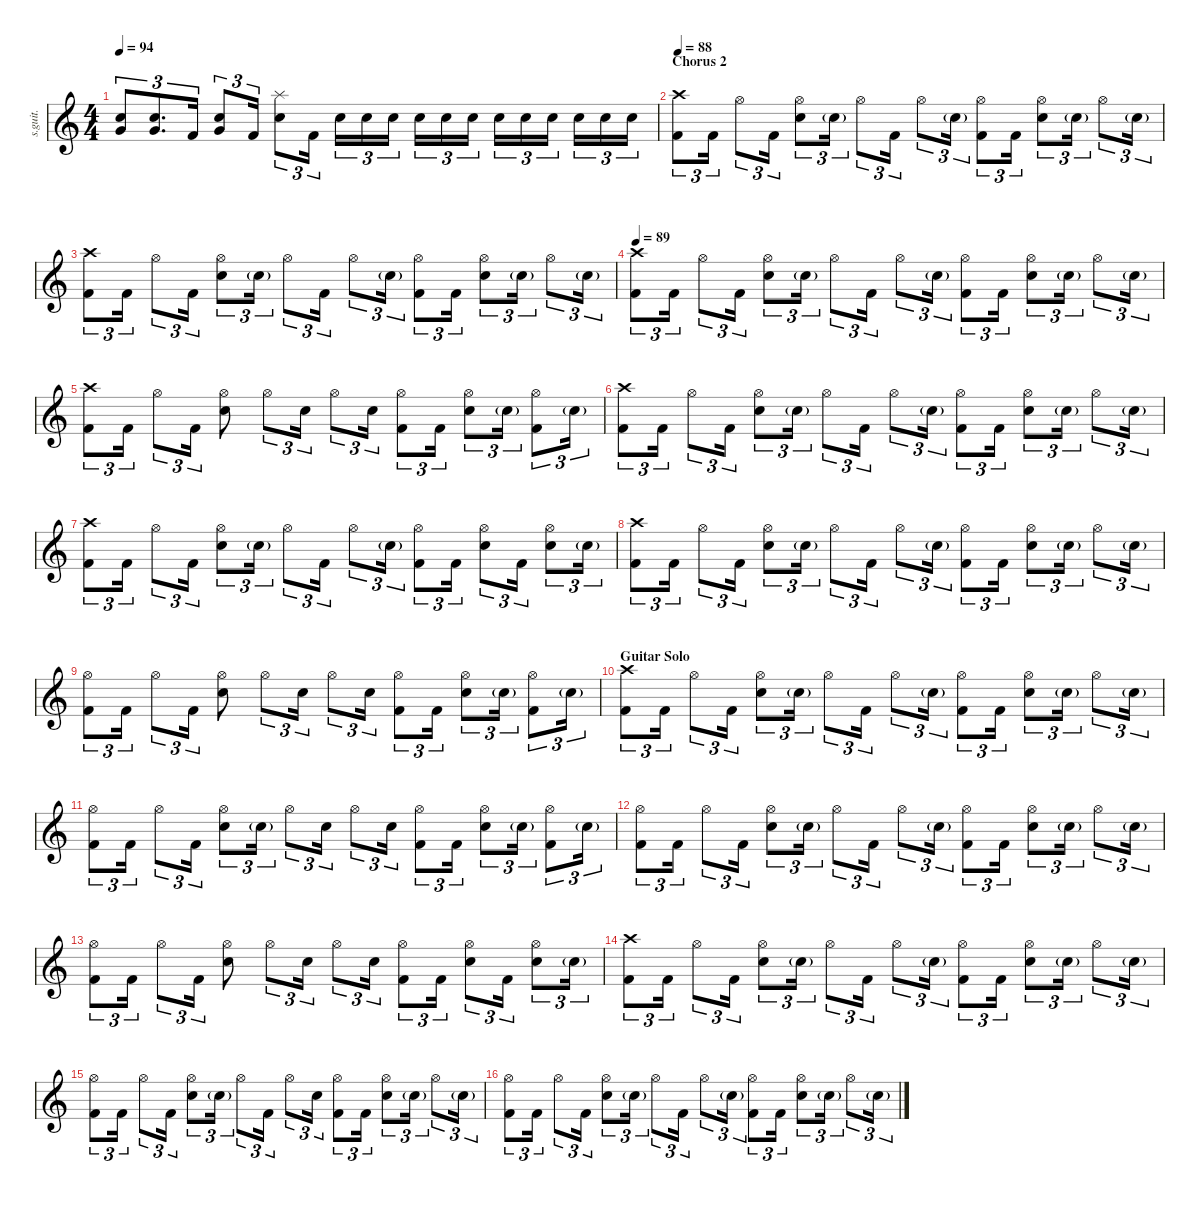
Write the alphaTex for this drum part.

\defaultSystemsLayout 4
\hideDynamics
\bracketExtendMode nobrackets
\track ("Brad Wilk - Drums" "s.guit.") {instrument percussion}
\staff {score}
\articulation defaults
\ts (4 4)
\tempo 94
\clef g2
\ks c
("Very Low Tom (hit)" "Snare (hit) 2").8{tu (3 2) lyrics (0 "") lyrics (1 "") lyrics (2 "") lyrics (3 "") lyrics (4 "") dy f} ("Very Low Tom (hit)" "Snare (hit) 2").8{d tu (3 2) lyrics (0 "") lyrics (1 "") lyrics (2 "") lyrics (3 "") lyrics (4 "")} "Kick (hit) 2".16{tu (3 2) lyrics (0 "") lyrics (1 "") lyrics (2 "") lyrics (3 "") lyrics (4 "")} ("Very Low Tom (hit)" "Snare (hit) 2").8{tu (3 2) lyrics (0 "") lyrics (1 "") lyrics (2 "") lyrics (3 "") lyrics (4 "")} "Kick (hit) 2".16{tu (3 2) lyrics (0 "") lyrics (1 "") lyrics (2 "") lyrics (3 "") lyrics (4 "")} ("Splash (hit)" "Snare (hit) 2").8{tu (3 2) lyrics (0 "") lyrics (1 "") lyrics (2 "") lyrics (3 "") lyrics (4 "")} "Kick (hit) 2".16{tu (3 2) lyrics (0 "") lyrics (1 "") lyrics (2 "") lyrics (3 "") lyrics (4 "")} "Snare (hit) 2".16{tu (3 2) lyrics (0 "") lyrics (1 "") lyrics (2 "") lyrics (3 "") lyrics (4 "")} "Snare (hit) 2".16{tu (3 2) lyrics (0 "") lyrics (1 "") lyrics (2 "") lyrics (3 "") lyrics (4 "")} "Snare (hit) 2".16{tu (3 2) lyrics (0 "") lyrics (1 "") lyrics (2 "") lyrics (3 "") lyrics (4 "")} "Snare (hit) 2".16{tu (3 2) lyrics (0 "") lyrics (1 "") lyrics (2 "") lyrics (3 "") lyrics (4 "")} "Snare (hit) 2".16{tu (3 2) lyrics (0 "") lyrics (1 "") lyrics (2 "") lyrics (3 "") lyrics (4 "")} "Snare (hit) 2".16{tu (3 2) lyrics (0 "") lyrics (1 "") lyrics (2 "") lyrics (3 "") lyrics (4 "")} "Snare (hit) 2".16{tu (3 2) lyrics (0 "") lyrics (1 "") lyrics (2 "") lyrics (3 "") lyrics (4 "")} "Snare (hit) 2".16{tu (3 2) lyrics (0 "") lyrics (1 "") lyrics (2 "") lyrics (3 "") lyrics (4 "")} "Snare (hit) 2".16{tu (3 2) lyrics (0 "") lyrics (1 "") lyrics (2 "") lyrics (3 "") lyrics (4 "")} "Snare (hit) 2".16{tu (3 2) lyrics (0 "") lyrics (1 "") lyrics (2 "") lyrics (3 "") lyrics (4 "")} "Snare (hit) 2".16{tu (3 2) lyrics (0 "") lyrics (1 "") lyrics (2 "") lyrics (3 "") lyrics (4 "")} "Snare (hit) 2".16{tu (3 2) lyrics (0 "") lyrics (1 "") lyrics (2 "") lyrics (3 "") lyrics (4 "")} |
\section ("" "Chorus 2")
\tempo 88
("Crash high (hit)" "Kick (hit) 2").8{tu (3 2) lyrics (0 "") lyrics (1 "") lyrics (2 "") lyrics (3 "") lyrics (4 "")} "Kick (hit) 2".16{tu (3 2) lyrics (0 "") lyrics (1 "") lyrics (2 "") lyrics (3 "") lyrics (4 "")} "Hi-Hat (open)".8{tu (3 2) lyrics (0 "") lyrics (1 "") lyrics (2 "") lyrics (3 "") lyrics (4 "")} "Kick (hit) 2".16{tu (3 2) lyrics (0 "") lyrics (1 "") lyrics (2 "") lyrics (3 "") lyrics (4 "")} ("Hi-Hat (open)" "Snare (hit) 2").8{tu (3 2) lyrics (0 "") lyrics (1 "") lyrics (2 "") lyrics (3 "") lyrics (4 "")} "Snare (hit) 2"{g}.16{tu (3 2) lyrics (0 "") lyrics (1 "") lyrics (2 "") lyrics (3 "") lyrics (4 "") dy mp} "Hi-Hat (open)".8{tu (3 2) lyrics (0 "") lyrics (1 "") lyrics (2 "") lyrics (3 "") lyrics (4 "") dy f} "Kick (hit) 2".16{tu (3 2) lyrics (0 "") lyrics (1 "") lyrics (2 "") lyrics (3 "") lyrics (4 "")} "Hi-Hat (open)".8{tu (3 2) lyrics (0 "") lyrics (1 "") lyrics (2 "") lyrics (3 "") lyrics (4 "")} "Snare (hit) 2"{g}.16{tu (3 2) lyrics (0 "") lyrics (1 "") lyrics (2 "") lyrics (3 "") lyrics (4 "") dy mp} ("Hi-Hat (open)" "Kick (hit) 2").8{tu (3 2) lyrics (0 "") lyrics (1 "") lyrics (2 "") lyrics (3 "") lyrics (4 "") dy f} "Kick (hit) 2".16{tu (3 2) lyrics (0 "") lyrics (1 "") lyrics (2 "") lyrics (3 "") lyrics (4 "")} ("Hi-Hat (open)" "Snare (hit) 2").8{tu (3 2) lyrics (0 "") lyrics (1 "") lyrics (2 "") lyrics (3 "") lyrics (4 "")} "Snare (hit) 2"{g}.16{tu (3 2) lyrics (0 "") lyrics (1 "") lyrics (2 "") lyrics (3 "") lyrics (4 "") dy mp} "Hi-Hat (open)".8{tu (3 2) lyrics (0 "") lyrics (1 "") lyrics (2 "") lyrics (3 "") lyrics (4 "") dy f} "Snare (hit) 2"{g}.16{tu (3 2) lyrics (0 "") lyrics (1 "") lyrics (2 "") lyrics (3 "") lyrics (4 "") dy mp} |
("Crash high (hit)" "Kick (hit) 2").8{tu (3 2) lyrics (0 "") lyrics (1 "") lyrics (2 "") lyrics (3 "") lyrics (4 "") dy f} "Kick (hit) 2".16{tu (3 2) lyrics (0 "") lyrics (1 "") lyrics (2 "") lyrics (3 "") lyrics (4 "")} "Hi-Hat (open)".8{tu (3 2) lyrics (0 "") lyrics (1 "") lyrics (2 "") lyrics (3 "") lyrics (4 "")} "Kick (hit) 2".16{tu (3 2) lyrics (0 "") lyrics (1 "") lyrics (2 "") lyrics (3 "") lyrics (4 "")} ("Hi-Hat (open)" "Snare (hit) 2").8{tu (3 2) lyrics (0 "") lyrics (1 "") lyrics (2 "") lyrics (3 "") lyrics (4 "")} "Snare (hit) 2"{g}.16{tu (3 2) lyrics (0 "") lyrics (1 "") lyrics (2 "") lyrics (3 "") lyrics (4 "") dy mp} "Hi-Hat (open)".8{tu (3 2) lyrics (0 "") lyrics (1 "") lyrics (2 "") lyrics (3 "") lyrics (4 "") dy f} "Kick (hit) 2".16{tu (3 2) lyrics (0 "") lyrics (1 "") lyrics (2 "") lyrics (3 "") lyrics (4 "")} "Hi-Hat (open)".8{tu (3 2) lyrics (0 "") lyrics (1 "") lyrics (2 "") lyrics (3 "") lyrics (4 "")} "Snare (hit) 2"{g}.16{tu (3 2) lyrics (0 "") lyrics (1 "") lyrics (2 "") lyrics (3 "") lyrics (4 "") dy mp} ("Hi-Hat (open)" "Kick (hit) 2").8{tu (3 2) lyrics (0 "") lyrics (1 "") lyrics (2 "") lyrics (3 "") lyrics (4 "") dy f} "Kick (hit) 2".16{tu (3 2) lyrics (0 "") lyrics (1 "") lyrics (2 "") lyrics (3 "") lyrics (4 "")} ("Hi-Hat (open)" "Snare (hit) 2").8{tu (3 2) lyrics (0 "") lyrics (1 "") lyrics (2 "") lyrics (3 "") lyrics (4 "")} "Snare (hit) 2"{g}.16{tu (3 2) lyrics (0 "") lyrics (1 "") lyrics (2 "") lyrics (3 "") lyrics (4 "") dy mp} "Hi-Hat (open)".8{tu (3 2) lyrics (0 "") lyrics (1 "") lyrics (2 "") lyrics (3 "") lyrics (4 "") dy f} "Snare (hit) 2"{g}.16{tu (3 2) lyrics (0 "") lyrics (1 "") lyrics (2 "") lyrics (3 "") lyrics (4 "") dy mp} |
\tempo 89
("Crash high (hit)" "Kick (hit) 2").8{tu (3 2) lyrics (0 "") lyrics (1 "") lyrics (2 "") lyrics (3 "") lyrics (4 "") dy f} "Kick (hit) 2".16{tu (3 2) lyrics (0 "") lyrics (1 "") lyrics (2 "") lyrics (3 "") lyrics (4 "")} "Hi-Hat (open)".8{tu (3 2) lyrics (0 "") lyrics (1 "") lyrics (2 "") lyrics (3 "") lyrics (4 "")} "Kick (hit) 2".16{tu (3 2) lyrics (0 "") lyrics (1 "") lyrics (2 "") lyrics (3 "") lyrics (4 "")} ("Hi-Hat (open)" "Snare (hit) 2").8{tu (3 2) lyrics (0 "") lyrics (1 "") lyrics (2 "") lyrics (3 "") lyrics (4 "")} "Snare (hit) 2"{g}.16{tu (3 2) lyrics (0 "") lyrics (1 "") lyrics (2 "") lyrics (3 "") lyrics (4 "") dy mp} "Hi-Hat (open)".8{tu (3 2) lyrics (0 "") lyrics (1 "") lyrics (2 "") lyrics (3 "") lyrics (4 "") dy f} "Kick (hit) 2".16{tu (3 2) lyrics (0 "") lyrics (1 "") lyrics (2 "") lyrics (3 "") lyrics (4 "")} "Hi-Hat (open)".8{tu (3 2) lyrics (0 "") lyrics (1 "") lyrics (2 "") lyrics (3 "") lyrics (4 "")} "Snare (hit) 2"{g}.16{tu (3 2) lyrics (0 "") lyrics (1 "") lyrics (2 "") lyrics (3 "") lyrics (4 "") dy mp} ("Hi-Hat (open)" "Kick (hit) 2").8{tu (3 2) lyrics (0 "") lyrics (1 "") lyrics (2 "") lyrics (3 "") lyrics (4 "") dy f} "Kick (hit) 2".16{tu (3 2) lyrics (0 "") lyrics (1 "") lyrics (2 "") lyrics (3 "") lyrics (4 "")} ("Hi-Hat (open)" "Snare (hit) 2").8{tu (3 2) lyrics (0 "") lyrics (1 "") lyrics (2 "") lyrics (3 "") lyrics (4 "")} "Snare (hit) 2"{g}.16{tu (3 2) lyrics (0 "") lyrics (1 "") lyrics (2 "") lyrics (3 "") lyrics (4 "") dy mp} "Hi-Hat (open)".8{tu (3 2) lyrics (0 "") lyrics (1 "") lyrics (2 "") lyrics (3 "") lyrics (4 "") dy f} "Snare (hit) 2"{g}.16{tu (3 2) lyrics (0 "") lyrics (1 "") lyrics (2 "") lyrics (3 "") lyrics (4 "") dy mp} |
("Crash high (hit)" "Kick (hit) 2").8{tu (3 2) lyrics (0 "") lyrics (1 "") lyrics (2 "") lyrics (3 "") lyrics (4 "") dy f} "Kick (hit) 2".16{tu (3 2) lyrics (0 "") lyrics (1 "") lyrics (2 "") lyrics (3 "") lyrics (4 "")} "Hi-Hat (open)".8{tu (3 2) lyrics (0 "") lyrics (1 "") lyrics (2 "") lyrics (3 "") lyrics (4 "")} "Kick (hit) 2".16{tu (3 2) lyrics (0 "") lyrics (1 "") lyrics (2 "") lyrics (3 "") lyrics (4 "")} ("Hi-Hat (open)" "Snare (hit) 2").8{lyrics (0 "") lyrics (1 "") lyrics (2 "") lyrics (3 "") lyrics (4 "")} "Hi-Hat (open)".8{tu (3 2) lyrics (0 "") lyrics (1 "") lyrics (2 "") lyrics (3 "") lyrics (4 "")} "Snare (hit) 2".16{tu (3 2) lyrics (0 "") lyrics (1 "") lyrics (2 "") lyrics (3 "") lyrics (4 "")} "Hi-Hat (open)".8{tu (3 2) lyrics (0 "") lyrics (1 "") lyrics (2 "") lyrics (3 "") lyrics (4 "")} "Snare (hit) 2".16{tu (3 2) lyrics (0 "") lyrics (1 "") lyrics (2 "") lyrics (3 "") lyrics (4 "") dy mf} ("Hi-Hat (open)" "Kick (hit) 2").8{tu (3 2) lyrics (0 "") lyrics (1 "") lyrics (2 "") lyrics (3 "") lyrics (4 "") dy f} "Kick (hit) 2".16{tu (3 2) lyrics (0 "") lyrics (1 "") lyrics (2 "") lyrics (3 "") lyrics (4 "")} ("Hi-Hat (open)" "Snare (hit) 2").8{tu (3 2) lyrics (0 "") lyrics (1 "") lyrics (2 "") lyrics (3 "") lyrics (4 "")} "Snare (hit) 2"{g}.16{tu (3 2) lyrics (0 "") lyrics (1 "") lyrics (2 "") lyrics (3 "") lyrics (4 "") dy mp} ("Hi-Hat (open)" "Kick (hit) 2").8{tu (3 2) lyrics (0 "") lyrics (1 "") lyrics (2 "") lyrics (3 "") lyrics (4 "") dy f} "Snare (hit) 2"{g}.16{tu (3 2) lyrics (0 "") lyrics (1 "") lyrics (2 "") lyrics (3 "") lyrics (4 "") dy mp} |
("Crash high (hit)" "Kick (hit) 2").8{tu (3 2) lyrics (0 "") lyrics (1 "") lyrics (2 "") lyrics (3 "") lyrics (4 "") dy f} "Kick (hit) 2".16{tu (3 2) lyrics (0 "") lyrics (1 "") lyrics (2 "") lyrics (3 "") lyrics (4 "")} "Hi-Hat (open)".8{tu (3 2) lyrics (0 "") lyrics (1 "") lyrics (2 "") lyrics (3 "") lyrics (4 "")} "Kick (hit) 2".16{tu (3 2) lyrics (0 "") lyrics (1 "") lyrics (2 "") lyrics (3 "") lyrics (4 "")} ("Hi-Hat (open)" "Snare (hit) 2").8{tu (3 2) lyrics (0 "") lyrics (1 "") lyrics (2 "") lyrics (3 "") lyrics (4 "")} "Snare (hit) 2"{g}.16{tu (3 2) lyrics (0 "") lyrics (1 "") lyrics (2 "") lyrics (3 "") lyrics (4 "") dy mp} "Hi-Hat (open)".8{tu (3 2) lyrics (0 "") lyrics (1 "") lyrics (2 "") lyrics (3 "") lyrics (4 "") dy f} "Kick (hit) 2".16{tu (3 2) lyrics (0 "") lyrics (1 "") lyrics (2 "") lyrics (3 "") lyrics (4 "")} "Hi-Hat (open)".8{tu (3 2) lyrics (0 "") lyrics (1 "") lyrics (2 "") lyrics (3 "") lyrics (4 "")} "Snare (hit) 2"{g}.16{tu (3 2) lyrics (0 "") lyrics (1 "") lyrics (2 "") lyrics (3 "") lyrics (4 "") dy mp} ("Hi-Hat (open)" "Kick (hit) 2").8{tu (3 2) lyrics (0 "") lyrics (1 "") lyrics (2 "") lyrics (3 "") lyrics (4 "") dy f} "Kick (hit) 2".16{tu (3 2) lyrics (0 "") lyrics (1 "") lyrics (2 "") lyrics (3 "") lyrics (4 "")} ("Hi-Hat (open)" "Snare (hit) 2").8{tu (3 2) lyrics (0 "") lyrics (1 "") lyrics (2 "") lyrics (3 "") lyrics (4 "")} "Snare (hit) 2"{g}.16{tu (3 2) lyrics (0 "") lyrics (1 "") lyrics (2 "") lyrics (3 "") lyrics (4 "") dy mp} "Hi-Hat (open)".8{tu (3 2) lyrics (0 "") lyrics (1 "") lyrics (2 "") lyrics (3 "") lyrics (4 "") dy f} "Snare (hit) 2"{g}.16{tu (3 2) lyrics (0 "") lyrics (1 "") lyrics (2 "") lyrics (3 "") lyrics (4 "") dy mp} |
("Crash high (hit)" "Kick (hit) 2").8{tu (3 2) lyrics (0 "") lyrics (1 "") lyrics (2 "") lyrics (3 "") lyrics (4 "") dy f} "Kick (hit) 2".16{tu (3 2) lyrics (0 "") lyrics (1 "") lyrics (2 "") lyrics (3 "") lyrics (4 "")} "Hi-Hat (open)".8{tu (3 2) lyrics (0 "") lyrics (1 "") lyrics (2 "") lyrics (3 "") lyrics (4 "")} "Kick (hit) 2".16{tu (3 2) lyrics (0 "") lyrics (1 "") lyrics (2 "") lyrics (3 "") lyrics (4 "")} ("Hi-Hat (open)" "Snare (hit) 2").8{tu (3 2) lyrics (0 "") lyrics (1 "") lyrics (2 "") lyrics (3 "") lyrics (4 "")} "Snare (hit) 2"{g}.16{tu (3 2) lyrics (0 "") lyrics (1 "") lyrics (2 "") lyrics (3 "") lyrics (4 "") dy mp} "Hi-Hat (open)".8{tu (3 2) lyrics (0 "") lyrics (1 "") lyrics (2 "") lyrics (3 "") lyrics (4 "") dy f} "Kick (hit) 2".16{tu (3 2) lyrics (0 "") lyrics (1 "") lyrics (2 "") lyrics (3 "") lyrics (4 "")} "Hi-Hat (open)".8{tu (3 2) lyrics (0 "") lyrics (1 "") lyrics (2 "") lyrics (3 "") lyrics (4 "")} "Snare (hit) 2"{g}.16{tu (3 2) lyrics (0 "") lyrics (1 "") lyrics (2 "") lyrics (3 "") lyrics (4 "") dy mp} ("Hi-Hat (open)" "Kick (hit) 2").8{tu (3 2) lyrics (0 "") lyrics (1 "") lyrics (2 "") lyrics (3 "") lyrics (4 "") dy f} "Kick (hit) 2".16{tu (3 2) lyrics (0 "") lyrics (1 "") lyrics (2 "") lyrics (3 "") lyrics (4 "")} ("Hi-Hat (open)" "Snare (hit) 2").8{tu (3 2) lyrics (0 "") lyrics (1 "") lyrics (2 "") lyrics (3 "") lyrics (4 "")} "Kick (hit) 2".16{tu (3 2) lyrics (0 "") lyrics (1 "") lyrics (2 "") lyrics (3 "") lyrics (4 "")} ("Hi-Hat (open)" "Snare (hit) 2").8{tu (3 2) lyrics (0 "") lyrics (1 "") lyrics (2 "") lyrics (3 "") lyrics (4 "")} "Snare (hit) 2"{g}.16{tu (3 2) lyrics (0 "") lyrics (1 "") lyrics (2 "") lyrics (3 "") lyrics (4 "") dy mp} |
("Crash high (hit)" "Kick (hit) 2").8{tu (3 2) lyrics (0 "") lyrics (1 "") lyrics (2 "") lyrics (3 "") lyrics (4 "") dy f} "Kick (hit) 2".16{tu (3 2) lyrics (0 "") lyrics (1 "") lyrics (2 "") lyrics (3 "") lyrics (4 "")} "Hi-Hat (open)".8{tu (3 2) lyrics (0 "") lyrics (1 "") lyrics (2 "") lyrics (3 "") lyrics (4 "")} "Kick (hit) 2".16{tu (3 2) lyrics (0 "") lyrics (1 "") lyrics (2 "") lyrics (3 "") lyrics (4 "")} ("Hi-Hat (open)" "Snare (hit) 2").8{tu (3 2) lyrics (0 "") lyrics (1 "") lyrics (2 "") lyrics (3 "") lyrics (4 "")} "Snare (hit) 2"{g}.16{tu (3 2) lyrics (0 "") lyrics (1 "") lyrics (2 "") lyrics (3 "") lyrics (4 "") dy mp} "Hi-Hat (open)".8{tu (3 2) lyrics (0 "") lyrics (1 "") lyrics (2 "") lyrics (3 "") lyrics (4 "") dy f} "Kick (hit) 2".16{tu (3 2) lyrics (0 "") lyrics (1 "") lyrics (2 "") lyrics (3 "") lyrics (4 "")} "Hi-Hat (open)".8{tu (3 2) lyrics (0 "") lyrics (1 "") lyrics (2 "") lyrics (3 "") lyrics (4 "")} "Snare (hit) 2"{g}.16{tu (3 2) lyrics (0 "") lyrics (1 "") lyrics (2 "") lyrics (3 "") lyrics (4 "") dy mp} ("Hi-Hat (open)" "Kick (hit) 2").8{tu (3 2) lyrics (0 "") lyrics (1 "") lyrics (2 "") lyrics (3 "") lyrics (4 "") dy f} "Kick (hit) 2".16{tu (3 2) lyrics (0 "") lyrics (1 "") lyrics (2 "") lyrics (3 "") lyrics (4 "")} ("Hi-Hat (open)" "Snare (hit) 2").8{tu (3 2) lyrics (0 "") lyrics (1 "") lyrics (2 "") lyrics (3 "") lyrics (4 "")} "Snare (hit) 2"{g}.16{tu (3 2) lyrics (0 "") lyrics (1 "") lyrics (2 "") lyrics (3 "") lyrics (4 "") dy mp} "Hi-Hat (open)".8{tu (3 2) lyrics (0 "") lyrics (1 "") lyrics (2 "") lyrics (3 "") lyrics (4 "") dy f} "Snare (hit) 2"{g}.16{tu (3 2) lyrics (0 "") lyrics (1 "") lyrics (2 "") lyrics (3 "") lyrics (4 "") dy mp} |
("Hi-Hat (open)" "Kick (hit) 2").8{tu (3 2) lyrics (0 "") lyrics (1 "") lyrics (2 "") lyrics (3 "") lyrics (4 "") dy f} "Kick (hit) 2".16{tu (3 2) lyrics (0 "") lyrics (1 "") lyrics (2 "") lyrics (3 "") lyrics (4 "")} "Hi-Hat (open)".8{tu (3 2) lyrics (0 "") lyrics (1 "") lyrics (2 "") lyrics (3 "") lyrics (4 "")} "Kick (hit) 2".16{tu (3 2) lyrics (0 "") lyrics (1 "") lyrics (2 "") lyrics (3 "") lyrics (4 "")} ("Hi-Hat (open)" "Snare (hit) 2").8{lyrics (0 "") lyrics (1 "") lyrics (2 "") lyrics (3 "") lyrics (4 "")} "Hi-Hat (open)".8{tu (3 2) lyrics (0 "") lyrics (1 "") lyrics (2 "") lyrics (3 "") lyrics (4 "")} "Snare (hit) 2".16{tu (3 2) lyrics (0 "") lyrics (1 "") lyrics (2 "") lyrics (3 "") lyrics (4 "")} "Hi-Hat (open)".8{tu (3 2) lyrics (0 "") lyrics (1 "") lyrics (2 "") lyrics (3 "") lyrics (4 "")} "Snare (hit) 2".16{tu (3 2) lyrics (0 "") lyrics (1 "") lyrics (2 "") lyrics (3 "") lyrics (4 "") dy mf} ("Hi-Hat (open)" "Kick (hit) 2").8{tu (3 2) lyrics (0 "") lyrics (1 "") lyrics (2 "") lyrics (3 "") lyrics (4 "") dy f} "Kick (hit) 2".16{tu (3 2) lyrics (0 "") lyrics (1 "") lyrics (2 "") lyrics (3 "") lyrics (4 "")} ("Hi-Hat (open)" "Snare (hit) 2").8{tu (3 2) lyrics (0 "") lyrics (1 "") lyrics (2 "") lyrics (3 "") lyrics (4 "")} "Snare (hit) 2"{g}.16{tu (3 2) lyrics (0 "") lyrics (1 "") lyrics (2 "") lyrics (3 "") lyrics (4 "") dy mp} ("Hi-Hat (open)" "Kick (hit) 2").8{tu (3 2) lyrics (0 "") lyrics (1 "") lyrics (2 "") lyrics (3 "") lyrics (4 "") dy f} "Snare (hit) 2"{g}.16{tu (3 2) lyrics (0 "") lyrics (1 "") lyrics (2 "") lyrics (3 "") lyrics (4 "") dy mp} |
\section ("" "Guitar Solo")
("Crash high (hit)" "Kick (hit) 2").8{tu (3 2) lyrics (0 "") lyrics (1 "") lyrics (2 "") lyrics (3 "") lyrics (4 "") dy f} "Kick (hit) 2".16{tu (3 2) lyrics (0 "") lyrics (1 "") lyrics (2 "") lyrics (3 "") lyrics (4 "")} "Hi-Hat (open)".8{tu (3 2) lyrics (0 "") lyrics (1 "") lyrics (2 "") lyrics (3 "") lyrics (4 "")} "Kick (hit) 2".16{tu (3 2) lyrics (0 "") lyrics (1 "") lyrics (2 "") lyrics (3 "") lyrics (4 "")} ("Hi-Hat (open)" "Snare (hit) 2").8{tu (3 2) lyrics (0 "") lyrics (1 "") lyrics (2 "") lyrics (3 "") lyrics (4 "")} "Snare (hit) 2"{g}.16{tu (3 2) lyrics (0 "") lyrics (1 "") lyrics (2 "") lyrics (3 "") lyrics (4 "") dy mp} "Hi-Hat (open)".8{tu (3 2) lyrics (0 "") lyrics (1 "") lyrics (2 "") lyrics (3 "") lyrics (4 "") dy f} "Kick (hit) 2".16{tu (3 2) lyrics (0 "") lyrics (1 "") lyrics (2 "") lyrics (3 "") lyrics (4 "")} "Hi-Hat (open)".8{tu (3 2) lyrics (0 "") lyrics (1 "") lyrics (2 "") lyrics (3 "") lyrics (4 "")} "Snare (hit) 2"{g}.16{tu (3 2) lyrics (0 "") lyrics (1 "") lyrics (2 "") lyrics (3 "") lyrics (4 "") dy mp} ("Hi-Hat (open)" "Kick (hit) 2").8{tu (3 2) lyrics (0 "") lyrics (1 "") lyrics (2 "") lyrics (3 "") lyrics (4 "") dy f} "Kick (hit) 2".16{tu (3 2) lyrics (0 "") lyrics (1 "") lyrics (2 "") lyrics (3 "") lyrics (4 "")} ("Hi-Hat (open)" "Snare (hit) 2").8{tu (3 2) lyrics (0 "") lyrics (1 "") lyrics (2 "") lyrics (3 "") lyrics (4 "")} "Snare (hit) 2"{g}.16{tu (3 2) lyrics (0 "") lyrics (1 "") lyrics (2 "") lyrics (3 "") lyrics (4 "") dy mp} "Hi-Hat (open)".8{tu (3 2) lyrics (0 "") lyrics (1 "") lyrics (2 "") lyrics (3 "") lyrics (4 "") dy f} "Snare (hit) 2"{g}.16{tu (3 2) lyrics (0 "") lyrics (1 "") lyrics (2 "") lyrics (3 "") lyrics (4 "") dy mp} |
("Hi-Hat (open)" "Kick (hit) 2").8{tu (3 2) lyrics (0 "") lyrics (1 "") lyrics (2 "") lyrics (3 "") lyrics (4 "") dy f} "Kick (hit) 2".16{tu (3 2) lyrics (0 "") lyrics (1 "") lyrics (2 "") lyrics (3 "") lyrics (4 "")} "Hi-Hat (open)".8{tu (3 2) lyrics (0 "") lyrics (1 "") lyrics (2 "") lyrics (3 "") lyrics (4 "")} "Kick (hit) 2".16{tu (3 2) lyrics (0 "") lyrics (1 "") lyrics (2 "") lyrics (3 "") lyrics (4 "")} ("Hi-Hat (open)" "Snare (hit) 2").8{tu (3 2) lyrics (0 "") lyrics (1 "") lyrics (2 "") lyrics (3 "") lyrics (4 "")} "Snare (hit) 2"{g}.16{tu (3 2) lyrics (0 "") lyrics (1 "") lyrics (2 "") lyrics (3 "") lyrics (4 "") dy mp} "Hi-Hat (open)".8{tu (3 2) lyrics (0 "") lyrics (1 "") lyrics (2 "") lyrics (3 "") lyrics (4 "") dy f} "Snare (hit) 2".16{tu (3 2) lyrics (0 "") lyrics (1 "") lyrics (2 "") lyrics (3 "") lyrics (4 "")} "Hi-Hat (open)".8{tu (3 2) lyrics (0 "") lyrics (1 "") lyrics (2 "") lyrics (3 "") lyrics (4 "")} "Snare (hit) 2".16{tu (3 2) lyrics (0 "") lyrics (1 "") lyrics (2 "") lyrics (3 "") lyrics (4 "") dy mf} ("Hi-Hat (open)" "Kick (hit) 2").8{tu (3 2) lyrics (0 "") lyrics (1 "") lyrics (2 "") lyrics (3 "") lyrics (4 "") dy f} "Kick (hit) 2".16{tu (3 2) lyrics (0 "") lyrics (1 "") lyrics (2 "") lyrics (3 "") lyrics (4 "")} ("Hi-Hat (open)" "Snare (hit) 2").8{tu (3 2) lyrics (0 "") lyrics (1 "") lyrics (2 "") lyrics (3 "") lyrics (4 "")} "Snare (hit) 2"{g}.16{tu (3 2) lyrics (0 "") lyrics (1 "") lyrics (2 "") lyrics (3 "") lyrics (4 "") dy mp} ("Hi-Hat (open)" "Kick (hit) 2").8{tu (3 2) lyrics (0 "") lyrics (1 "") lyrics (2 "") lyrics (3 "") lyrics (4 "") dy f} "Snare (hit) 2"{g}.16{tu (3 2) lyrics (0 "") lyrics (1 "") lyrics (2 "") lyrics (3 "") lyrics (4 "") dy mp} |
("Hi-Hat (open)" "Kick (hit) 2").8{tu (3 2) lyrics (0 "") lyrics (1 "") lyrics (2 "") lyrics (3 "") lyrics (4 "") dy f} "Kick (hit) 2".16{tu (3 2) lyrics (0 "") lyrics (1 "") lyrics (2 "") lyrics (3 "") lyrics (4 "")} "Hi-Hat (open)".8{tu (3 2) lyrics (0 "") lyrics (1 "") lyrics (2 "") lyrics (3 "") lyrics (4 "")} "Kick (hit) 2".16{tu (3 2) lyrics (0 "") lyrics (1 "") lyrics (2 "") lyrics (3 "") lyrics (4 "")} ("Hi-Hat (open)" "Snare (hit) 2").8{tu (3 2) lyrics (0 "") lyrics (1 "") lyrics (2 "") lyrics (3 "") lyrics (4 "")} "Snare (hit) 2"{g}.16{tu (3 2) lyrics (0 "") lyrics (1 "") lyrics (2 "") lyrics (3 "") lyrics (4 "") dy mp} "Hi-Hat (open)".8{tu (3 2) lyrics (0 "") lyrics (1 "") lyrics (2 "") lyrics (3 "") lyrics (4 "") dy f} "Kick (hit) 2".16{tu (3 2) lyrics (0 "") lyrics (1 "") lyrics (2 "") lyrics (3 "") lyrics (4 "")} "Hi-Hat (open)".8{tu (3 2) lyrics (0 "") lyrics (1 "") lyrics (2 "") lyrics (3 "") lyrics (4 "")} "Snare (hit) 2"{g}.16{tu (3 2) lyrics (0 "") lyrics (1 "") lyrics (2 "") lyrics (3 "") lyrics (4 "") dy mp} ("Hi-Hat (open)" "Kick (hit) 2").8{tu (3 2) lyrics (0 "") lyrics (1 "") lyrics (2 "") lyrics (3 "") lyrics (4 "") dy f} "Kick (hit) 2".16{tu (3 2) lyrics (0 "") lyrics (1 "") lyrics (2 "") lyrics (3 "") lyrics (4 "")} ("Hi-Hat (open)" "Snare (hit) 2").8{tu (3 2) lyrics (0 "") lyrics (1 "") lyrics (2 "") lyrics (3 "") lyrics (4 "")} "Snare (hit) 2"{g}.16{tu (3 2) lyrics (0 "") lyrics (1 "") lyrics (2 "") lyrics (3 "") lyrics (4 "") dy mp} "Hi-Hat (open)".8{tu (3 2) lyrics (0 "") lyrics (1 "") lyrics (2 "") lyrics (3 "") lyrics (4 "") dy f} "Snare (hit) 2"{g}.16{tu (3 2) lyrics (0 "") lyrics (1 "") lyrics (2 "") lyrics (3 "") lyrics (4 "") dy mp} |
("Hi-Hat (open)" "Kick (hit) 2").8{tu (3 2) lyrics (0 "") lyrics (1 "") lyrics (2 "") lyrics (3 "") lyrics (4 "") dy f} "Kick (hit) 2".16{tu (3 2) lyrics (0 "") lyrics (1 "") lyrics (2 "") lyrics (3 "") lyrics (4 "")} "Hi-Hat (open)".8{tu (3 2) lyrics (0 "") lyrics (1 "") lyrics (2 "") lyrics (3 "") lyrics (4 "")} "Kick (hit) 2".16{tu (3 2) lyrics (0 "") lyrics (1 "") lyrics (2 "") lyrics (3 "") lyrics (4 "")} ("Hi-Hat (open)" "Snare (hit) 2").8{lyrics (0 "") lyrics (1 "") lyrics (2 "") lyrics (3 "") lyrics (4 "")} "Hi-Hat (open)".8{tu (3 2) lyrics (0 "") lyrics (1 "") lyrics (2 "") lyrics (3 "") lyrics (4 "")} "Snare (hit) 2".16{tu (3 2) lyrics (0 "") lyrics (1 "") lyrics (2 "") lyrics (3 "") lyrics (4 "")} "Hi-Hat (open)".8{tu (3 2) lyrics (0 "") lyrics (1 "") lyrics (2 "") lyrics (3 "") lyrics (4 "")} "Snare (hit) 2".16{tu (3 2) lyrics (0 "") lyrics (1 "") lyrics (2 "") lyrics (3 "") lyrics (4 "") dy mf} ("Hi-Hat (open)" "Kick (hit) 2").8{tu (3 2) lyrics (0 "") lyrics (1 "") lyrics (2 "") lyrics (3 "") lyrics (4 "") dy f} "Kick (hit) 2".16{tu (3 2) lyrics (0 "") lyrics (1 "") lyrics (2 "") lyrics (3 "") lyrics (4 "")} ("Hi-Hat (open)" "Snare (hit) 2").8{tu (3 2) lyrics (0 "") lyrics (1 "") lyrics (2 "") lyrics (3 "") lyrics (4 "")} "Kick (hit) 2".16{tu (3 2) lyrics (0 "") lyrics (1 "") lyrics (2 "") lyrics (3 "") lyrics (4 "")} ("Hi-Hat (open)" "Snare (hit) 2").8{tu (3 2) lyrics (0 "") lyrics (1 "") lyrics (2 "") lyrics (3 "") lyrics (4 "")} "Snare (hit) 2"{g}.16{tu (3 2) lyrics (0 "") lyrics (1 "") lyrics (2 "") lyrics (3 "") lyrics (4 "") dy mp} |
("Crash high (hit)" "Kick (hit) 2").8{tu (3 2) lyrics (0 "") lyrics (1 "") lyrics (2 "") lyrics (3 "") lyrics (4 "") dy f} "Kick (hit) 2".16{tu (3 2) lyrics (0 "") lyrics (1 "") lyrics (2 "") lyrics (3 "") lyrics (4 "")} "Hi-Hat (open)".8{tu (3 2) lyrics (0 "") lyrics (1 "") lyrics (2 "") lyrics (3 "") lyrics (4 "")} "Kick (hit) 2".16{tu (3 2) lyrics (0 "") lyrics (1 "") lyrics (2 "") lyrics (3 "") lyrics (4 "")} ("Hi-Hat (open)" "Snare (hit) 2").8{tu (3 2) lyrics (0 "") lyrics (1 "") lyrics (2 "") lyrics (3 "") lyrics (4 "")} "Snare (hit) 2"{g}.16{tu (3 2) lyrics (0 "") lyrics (1 "") lyrics (2 "") lyrics (3 "") lyrics (4 "") dy mp} "Hi-Hat (open)".8{tu (3 2) lyrics (0 "") lyrics (1 "") lyrics (2 "") lyrics (3 "") lyrics (4 "") dy f} "Kick (hit) 2".16{tu (3 2) lyrics (0 "") lyrics (1 "") lyrics (2 "") lyrics (3 "") lyrics (4 "")} "Hi-Hat (open)".8{tu (3 2) lyrics (0 "") lyrics (1 "") lyrics (2 "") lyrics (3 "") lyrics (4 "")} "Snare (hit) 2"{g}.16{tu (3 2) lyrics (0 "") lyrics (1 "") lyrics (2 "") lyrics (3 "") lyrics (4 "") dy mp} ("Hi-Hat (open)" "Kick (hit) 2").8{tu (3 2) lyrics (0 "") lyrics (1 "") lyrics (2 "") lyrics (3 "") lyrics (4 "") dy f} "Kick (hit) 2".16{tu (3 2) lyrics (0 "") lyrics (1 "") lyrics (2 "") lyrics (3 "") lyrics (4 "")} ("Hi-Hat (open)" "Snare (hit) 2").8{tu (3 2) lyrics (0 "") lyrics (1 "") lyrics (2 "") lyrics (3 "") lyrics (4 "")} "Snare (hit) 2"{g}.16{tu (3 2) lyrics (0 "") lyrics (1 "") lyrics (2 "") lyrics (3 "") lyrics (4 "") dy mp} "Hi-Hat (open)".8{tu (3 2) lyrics (0 "") lyrics (1 "") lyrics (2 "") lyrics (3 "") lyrics (4 "") dy f} "Snare (hit) 2"{g}.16{tu (3 2) lyrics (0 "") lyrics (1 "") lyrics (2 "") lyrics (3 "") lyrics (4 "") dy mp} |
("Hi-Hat (open)" "Kick (hit) 2").8{tu (3 2) lyrics (0 "") lyrics (1 "") lyrics (2 "") lyrics (3 "") lyrics (4 "") dy f} "Kick (hit) 2".16{tu (3 2) lyrics (0 "") lyrics (1 "") lyrics (2 "") lyrics (3 "") lyrics (4 "")} "Hi-Hat (open)".8{tu (3 2) lyrics (0 "") lyrics (1 "") lyrics (2 "") lyrics (3 "") lyrics (4 "")} "Kick (hit) 2".16{tu (3 2) lyrics (0 "") lyrics (1 "") lyrics (2 "") lyrics (3 "") lyrics (4 "")} ("Hi-Hat (open)" "Snare (hit) 2").8{tu (3 2) lyrics (0 "") lyrics (1 "") lyrics (2 "") lyrics (3 "") lyrics (4 "")} "Snare (hit) 2"{g}.16{tu (3 2) lyrics (0 "") lyrics (1 "") lyrics (2 "") lyrics (3 "") lyrics (4 "") dy mp} "Hi-Hat (open)".8{tu (3 2) lyrics (0 "") lyrics (1 "") lyrics (2 "") lyrics (3 "") lyrics (4 "") dy f} "Kick (hit) 2".16{tu (3 2) lyrics (0 "") lyrics (1 "") lyrics (2 "") lyrics (3 "") lyrics (4 "")} "Hi-Hat (open)".8{tu (3 2) lyrics (0 "") lyrics (1 "") lyrics (2 "") lyrics (3 "") lyrics (4 "")} "Snare (hit) 2".16{tu (3 2) lyrics (0 "") lyrics (1 "") lyrics (2 "") lyrics (3 "") lyrics (4 "") dy mf} ("Hi-Hat (open)" "Kick (hit) 2").8{tu (3 2) lyrics (0 "") lyrics (1 "") lyrics (2 "") lyrics (3 "") lyrics (4 "") dy f} "Kick (hit) 2".16{tu (3 2) lyrics (0 "") lyrics (1 "") lyrics (2 "") lyrics (3 "") lyrics (4 "")} ("Hi-Hat (open)" "Snare (hit) 2").8{tu (3 2) lyrics (0 "") lyrics (1 "") lyrics (2 "") lyrics (3 "") lyrics (4 "")} "Snare (hit) 2"{g}.16{tu (3 2) lyrics (0 "") lyrics (1 "") lyrics (2 "") lyrics (3 "") lyrics (4 "") dy mp} "Hi-Hat (open)".8{tu (3 2) lyrics (0 "") lyrics (1 "") lyrics (2 "") lyrics (3 "") lyrics (4 "") dy f} "Snare (hit) 2"{g}.16{tu (3 2) lyrics (0 "") lyrics (1 "") lyrics (2 "") lyrics (3 "") lyrics (4 "") dy mp} |
("Hi-Hat (open)" "Kick (hit) 2").8{tu (3 2) lyrics (0 "") lyrics (1 "") lyrics (2 "") lyrics (3 "") lyrics (4 "") dy f} "Kick (hit) 2".16{tu (3 2) lyrics (0 "") lyrics (1 "") lyrics (2 "") lyrics (3 "") lyrics (4 "")} "Hi-Hat (open)".8{tu (3 2) lyrics (0 "") lyrics (1 "") lyrics (2 "") lyrics (3 "") lyrics (4 "")} "Kick (hit) 2".16{tu (3 2) lyrics (0 "") lyrics (1 "") lyrics (2 "") lyrics (3 "") lyrics (4 "")} ("Hi-Hat (open)" "Snare (hit) 2").8{tu (3 2) lyrics (0 "") lyrics (1 "") lyrics (2 "") lyrics (3 "") lyrics (4 "")} "Snare (hit) 2"{g}.16{tu (3 2) lyrics (0 "") lyrics (1 "") lyrics (2 "") lyrics (3 "") lyrics (4 "") dy mp} "Hi-Hat (open)".8{tu (3 2) lyrics (0 "") lyrics (1 "") lyrics (2 "") lyrics (3 "") lyrics (4 "") dy f} "Kick (hit) 2".16{tu (3 2) lyrics (0 "") lyrics (1 "") lyrics (2 "") lyrics (3 "") lyrics (4 "")} "Hi-Hat (open)".8{tu (3 2) lyrics (0 "") lyrics (1 "") lyrics (2 "") lyrics (3 "") lyrics (4 "")} "Snare (hit) 2"{g}.16{tu (3 2) lyrics (0 "") lyrics (1 "") lyrics (2 "") lyrics (3 "") lyrics (4 "") dy mp} ("Hi-Hat (open)" "Kick (hit) 2").8{tu (3 2) lyrics (0 "") lyrics (1 "") lyrics (2 "") lyrics (3 "") lyrics (4 "") dy f} "Kick (hit) 2".16{tu (3 2) lyrics (0 "") lyrics (1 "") lyrics (2 "") lyrics (3 "") lyrics (4 "")} ("Hi-Hat (open)" "Snare (hit) 2").8{tu (3 2) lyrics (0 "") lyrics (1 "") lyrics (2 "") lyrics (3 "") lyrics (4 "")} "Snare (hit) 2"{g}.16{tu (3 2) lyrics (0 "") lyrics (1 "") lyrics (2 "") lyrics (3 "") lyrics (4 "") dy mp} "Hi-Hat (open)".8{tu (3 2) lyrics (0 "") lyrics (1 "") lyrics (2 "") lyrics (3 "") lyrics (4 "") dy f} "Snare (hit) 2"{g}.16{tu (3 2) lyrics (0 "") lyrics (1 "") lyrics (2 "") lyrics (3 "") lyrics (4 "") dy mp}
